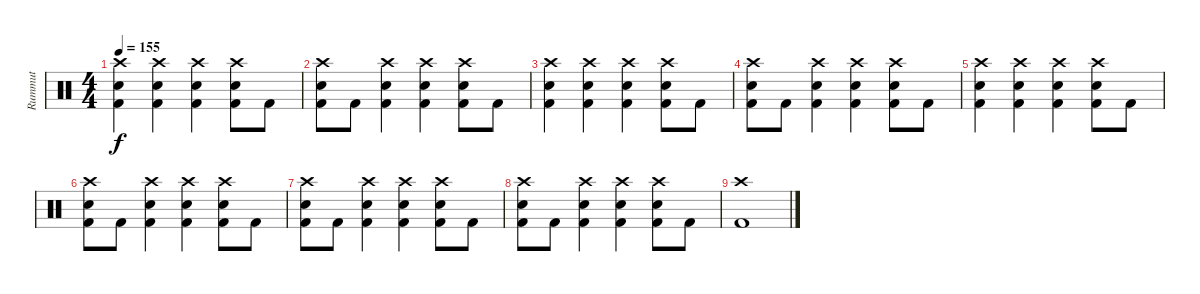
\track ("Rummut" "Rummut") {instrument percussion}
\staff {score}
\articulation defaults
\ts (4 4)
\tempo 155
\clef neutral
\ks c
("Crash high (hit)" "Electric Snare (hit)" "Kick (hit) 2").4{dy f} ("Crash high (hit)" "Electric Snare (hit)" "Kick (hit) 2").4 ("Crash high (hit)" "Electric Snare (hit)" "Kick (hit) 2").4 ("Crash high (hit)" "Electric Snare (hit)" "Kick (hit) 2").8 "Kick (hit) 2".8 |
("Crash high (hit)" "Electric Snare (hit)" "Kick (hit) 2").8 "Kick (hit) 2".8 ("Crash high (hit)" "Electric Snare (hit)" "Kick (hit) 2").4 ("Crash high (hit)" "Electric Snare (hit)" "Kick (hit) 2").4 ("Crash high (hit)" "Electric Snare (hit)" "Kick (hit) 2").8 "Kick (hit) 2".8 |
("Crash high (hit)" "Electric Snare (hit)" "Kick (hit) 2").4 ("Crash high (hit)" "Electric Snare (hit)" "Kick (hit) 2").4 ("Crash high (hit)" "Electric Snare (hit)" "Kick (hit) 2").4 ("Crash high (hit)" "Electric Snare (hit)" "Kick (hit) 2").8 "Kick (hit) 2".8 |
("Crash high (hit)" "Electric Snare (hit)" "Kick (hit) 2").8 "Kick (hit) 2".8 ("Crash high (hit)" "Electric Snare (hit)" "Kick (hit) 2").4 ("Crash high (hit)" "Electric Snare (hit)" "Kick (hit) 2").4 ("Crash high (hit)" "Electric Snare (hit)" "Kick (hit) 2").8 "Kick (hit) 2".8 |
("Crash high (hit)" "Electric Snare (hit)" "Kick (hit) 2").4 ("Crash high (hit)" "Electric Snare (hit)" "Kick (hit) 2").4 ("Crash high (hit)" "Electric Snare (hit)" "Kick (hit) 2").4 ("Crash high (hit)" "Electric Snare (hit)" "Kick (hit) 2").8 "Kick (hit) 2".8 |
("Crash high (hit)" "Electric Snare (hit)" "Kick (hit) 2").8 "Kick (hit) 2".8 ("Crash high (hit)" "Electric Snare (hit)" "Kick (hit) 2").4 ("Crash high (hit)" "Electric Snare (hit)" "Kick (hit) 2").4 ("Crash high (hit)" "Electric Snare (hit)" "Kick (hit) 2").8 "Kick (hit) 2".8 |
("Crash high (hit)" "Electric Snare (hit)" "Kick (hit) 2").8 "Kick (hit) 2".8 ("Crash high (hit)" "Electric Snare (hit)" "Kick (hit) 2").4 ("Crash high (hit)" "Electric Snare (hit)" "Kick (hit) 2").4 ("Crash high (hit)" "Electric Snare (hit)" "Kick (hit) 2").8 "Kick (hit) 2".8 |
("Crash high (hit)" "Electric Snare (hit)" "Kick (hit) 2").8 "Kick (hit) 2".8 ("Crash high (hit)" "Electric Snare (hit)" "Kick (hit) 2").4 ("Crash high (hit)" "Electric Snare (hit)" "Kick (hit) 2").4 ("Crash high (hit)" "Electric Snare (hit)" "Kick (hit) 2").8 "Kick (hit) 2".8 |
("Crash high (hit)" "Kick (hit) 2").1
